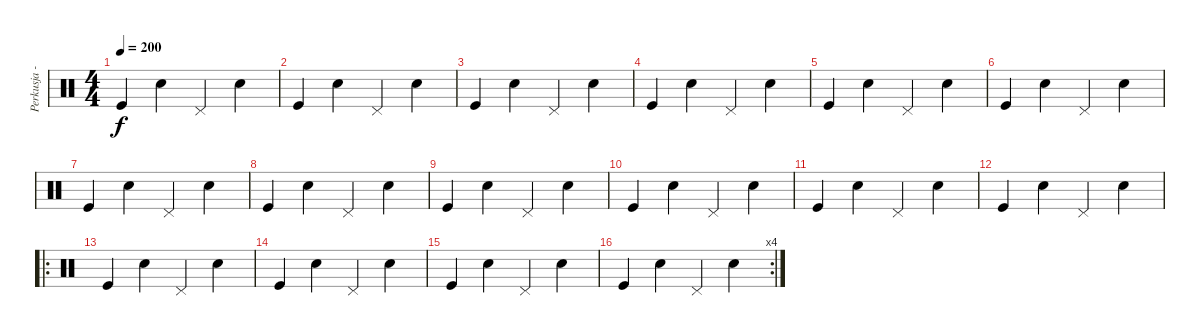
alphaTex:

\track ("Perkusja - J. Olejarz" "Perkusja -") {instrument percussion}
\staff {score}
\articulation defaults
\ts (4 4)
\tempo 200
\clef neutral
\ks c "Kick (hit)".4{dy f} "Electric Snare (hit)".4 "Pedal Hi-Hat (hit)".4 "Electric Snare (hit)".4
|
"Kick (hit)".4 "Electric Snare (hit)".4 "Pedal Hi-Hat (hit)".4 "Electric Snare (hit)".4 |
"Kick (hit)".4 "Electric Snare (hit)".4 "Pedal Hi-Hat (hit)".4 "Electric Snare (hit)".4 |
"Kick (hit)".4 "Electric Snare (hit)".4 "Pedal Hi-Hat (hit)".4 "Electric Snare (hit)".4 |
"Kick (hit)".4 "Electric Snare (hit)".4 "Pedal Hi-Hat (hit)".4 "Electric Snare (hit)".4 |
"Kick (hit)".4 "Electric Snare (hit)".4 "Pedal Hi-Hat (hit)".4 "Electric Snare (hit)".4 |
"Kick (hit)".4 "Electric Snare (hit)".4 "Pedal Hi-Hat (hit)".4 "Electric Snare (hit)".4 |
"Kick (hit)".4 "Electric Snare (hit)".4 "Pedal Hi-Hat (hit)".4 "Electric Snare (hit)".4 |
"Kick (hit)".4 "Electric Snare (hit)".4 "Pedal Hi-Hat (hit)".4 "Electric Snare (hit)".4 |
"Kick (hit)".4 "Electric Snare (hit)".4 "Pedal Hi-Hat (hit)".4 "Electric Snare (hit)".4 |
"Kick (hit)".4 "Electric Snare (hit)".4 "Pedal Hi-Hat (hit)".4 "Electric Snare (hit)".4 |
"Kick (hit)".4 "Electric Snare (hit)".4 "Pedal Hi-Hat (hit)".4 "Electric Snare (hit)".4 |
\ro "Kick (hit)".4 "Electric Snare (hit)".4 "Pedal Hi-Hat (hit)".4 "Electric Snare (hit)".4
|
"Kick (hit)".4 "Electric Snare (hit)".4 "Pedal Hi-Hat (hit)".4 "Electric Snare (hit)".4 |
"Kick (hit)".4 "Electric Snare (hit)".4 "Pedal Hi-Hat (hit)".4 "Electric Snare (hit)".4 |
\rc 4 "Kick (hit)".4 "Electric Snare (hit)".4 "Pedal Hi-Hat (hit)".4 "Electric Snare (hit)".4
